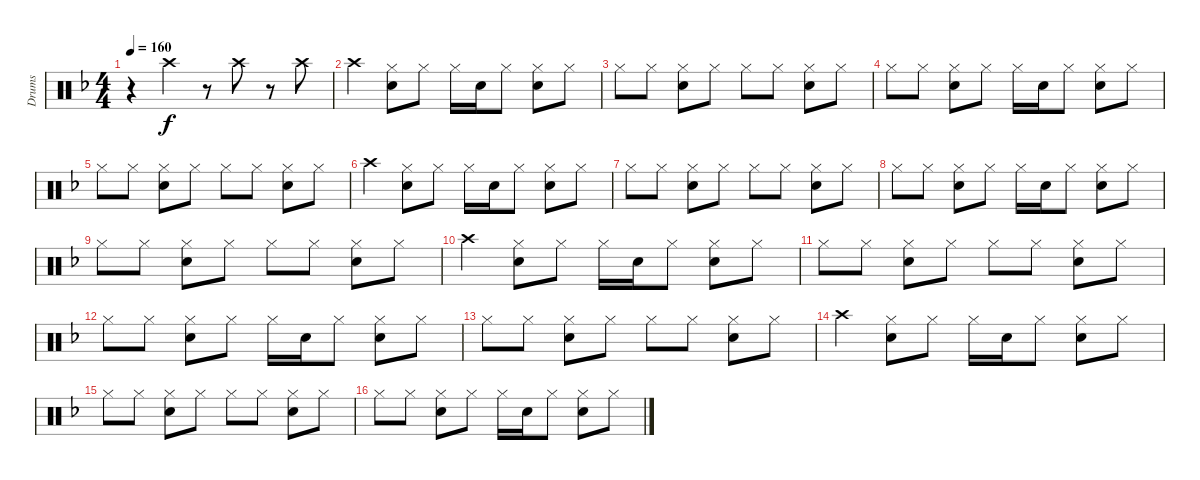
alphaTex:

\track ("Drums" "Drums") {instrument percussion}
\staff {score}
\articulation defaults
\ts (4 4)
\tempo 160
\clef neutral
\ks f
r.4{dy f} "Crash high (hit)".4 r.8 "Crash high (hit)".8 r.8 "Crash high (hit)".8 |
"Crash high (hit)".4 ("Hi-Hat (closed)" "Snare (hit) 2").8 "Hi-Hat (closed)".8 "Hi-Hat (closed)".16 "Snare (hit) 2".16 "Hi-Hat (closed)".8 ("Hi-Hat (closed)" "Snare (hit) 2").8 "Hi-Hat (closed)".8 |
"Hi-Hat (closed)".8 "Hi-Hat (closed)".8 ("Hi-Hat (closed)" "Snare (hit) 2").8 "Hi-Hat (closed)".8 "Hi-Hat (closed)".8 "Hi-Hat (closed)".8 ("Hi-Hat (closed)" "Snare (hit) 2").8 "Hi-Hat (closed)".8 |
"Hi-Hat (closed)".8 "Hi-Hat (closed)".8 ("Hi-Hat (closed)" "Snare (hit) 2").8 "Hi-Hat (closed)".8 "Hi-Hat (closed)".16 "Snare (hit) 2".16 "Hi-Hat (closed)".8 ("Hi-Hat (closed)" "Snare (hit) 2").8 "Hi-Hat (closed)".8 |
"Hi-Hat (closed)".8 "Hi-Hat (closed)".8 ("Hi-Hat (closed)" "Snare (hit) 2").8 "Hi-Hat (closed)".8 "Hi-Hat (closed)".8 "Hi-Hat (closed)".8 ("Hi-Hat (closed)" "Snare (hit) 2").8 "Hi-Hat (closed)".8 |
"Crash high (hit)".4 ("Hi-Hat (closed)" "Snare (hit) 2").8 "Hi-Hat (closed)".8 "Hi-Hat (closed)".16 "Snare (hit) 2".16 "Hi-Hat (closed)".8 ("Hi-Hat (closed)" "Snare (hit) 2").8 "Hi-Hat (closed)".8 |
"Hi-Hat (closed)".8 "Hi-Hat (closed)".8 ("Hi-Hat (closed)" "Snare (hit) 2").8 "Hi-Hat (closed)".8 "Hi-Hat (closed)".8 "Hi-Hat (closed)".8 ("Hi-Hat (closed)" "Snare (hit) 2").8 "Hi-Hat (closed)".8 |
"Hi-Hat (closed)".8 "Hi-Hat (closed)".8 ("Hi-Hat (closed)" "Snare (hit) 2").8 "Hi-Hat (closed)".8 "Hi-Hat (closed)".16 "Snare (hit) 2".16 "Hi-Hat (closed)".8 ("Hi-Hat (closed)" "Snare (hit) 2").8 "Hi-Hat (closed)".8 |
"Hi-Hat (closed)".8 "Hi-Hat (closed)".8 ("Hi-Hat (closed)" "Snare (hit) 2").8 "Hi-Hat (closed)".8 "Hi-Hat (closed)".8 "Hi-Hat (closed)".8 ("Hi-Hat (closed)" "Snare (hit) 2").8 "Hi-Hat (closed)".8 |
"Crash high (hit)".4 ("Hi-Hat (closed)" "Snare (hit) 2").8 "Hi-Hat (closed)".8 "Hi-Hat (closed)".16 "Snare (hit) 2".16 "Hi-Hat (closed)".8 ("Hi-Hat (closed)" "Snare (hit) 2").8 "Hi-Hat (closed)".8 |
"Hi-Hat (closed)".8 "Hi-Hat (closed)".8 ("Hi-Hat (closed)" "Snare (hit) 2").8 "Hi-Hat (closed)".8 "Hi-Hat (closed)".8 "Hi-Hat (closed)".8 ("Hi-Hat (closed)" "Snare (hit) 2").8 "Hi-Hat (closed)".8 |
"Hi-Hat (closed)".8 "Hi-Hat (closed)".8 ("Hi-Hat (closed)" "Snare (hit) 2").8 "Hi-Hat (closed)".8 "Hi-Hat (closed)".16 "Snare (hit) 2".16 "Hi-Hat (closed)".8 ("Hi-Hat (closed)" "Snare (hit) 2").8 "Hi-Hat (closed)".8 |
"Hi-Hat (closed)".8 "Hi-Hat (closed)".8 ("Hi-Hat (closed)" "Snare (hit) 2").8 "Hi-Hat (closed)".8 "Hi-Hat (closed)".8 "Hi-Hat (closed)".8 ("Hi-Hat (closed)" "Snare (hit) 2").8 "Hi-Hat (closed)".8 |
"Crash high (hit)".4 ("Hi-Hat (closed)" "Snare (hit) 2").8 "Hi-Hat (closed)".8 "Hi-Hat (closed)".16 "Snare (hit) 2".16 "Hi-Hat (closed)".8 ("Hi-Hat (closed)" "Snare (hit) 2").8 "Hi-Hat (closed)".8 |
"Hi-Hat (closed)".8 "Hi-Hat (closed)".8 ("Hi-Hat (closed)" "Snare (hit) 2").8 "Hi-Hat (closed)".8 "Hi-Hat (closed)".8 "Hi-Hat (closed)".8 ("Hi-Hat (closed)" "Snare (hit) 2").8 "Hi-Hat (closed)".8 |
"Hi-Hat (closed)".8 "Hi-Hat (closed)".8 ("Hi-Hat (closed)" "Snare (hit) 2").8 "Hi-Hat (closed)".8 "Hi-Hat (closed)".16 "Snare (hit) 2".16 "Hi-Hat (closed)".8 ("Hi-Hat (closed)" "Snare (hit) 2").8 "Hi-Hat (closed)".8
